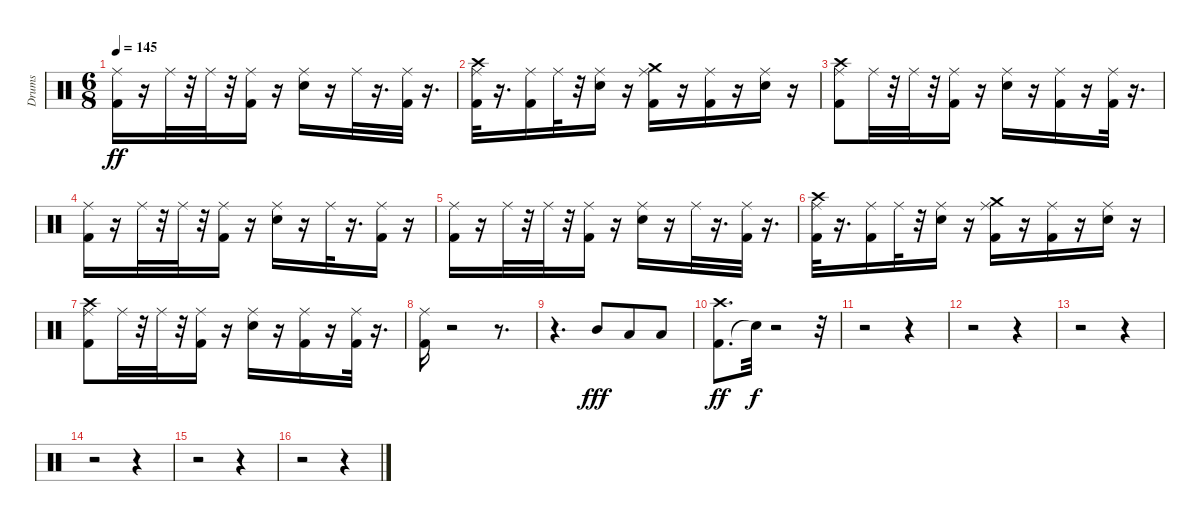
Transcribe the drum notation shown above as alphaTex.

\track ("Drums" "Drums") {instrument percussion}
\staff {score}
\articulation defaults
\ts (6 8)
\tempo 145
\clef neutral
\ks c
("Kick (hit) 2" "Ride (middle)").16{dy ff} r.16 "Ride (middle)".32 r.32 "Ride (middle)".32 r.32 ("Kick (hit) 2" "Ride (middle)").16 r.16 ("Snare (hit) 2" "Ride (middle)").16 r.16 "Ride (middle)".32 r.16{d} ("Kick (hit) 2" "Ride (middle)").32 r.16{d} |
("Kick (hit) 2" "Ride (middle)" "Crash high (hit)").32 r.16{d} ("Kick (hit) 2" "Ride (middle)").16 "Ride (middle)".32 r.32 ("Snare (hit) 2" "Ride (middle)").16 r.16 ("Kick (hit) 2" "Ride (middle)" "Crash medium (hit)").16 r.16 ("Kick (hit) 2" "Ride (middle)").16 r.16 ("Snare (hit) 2" "Ride (middle)").16 r.16 |
("Kick (hit) 2" "Ride (middle)" "Crash high (hit)").8 "Ride (middle)".32 r.32 "Ride (middle)".32 r.32 ("Kick (hit) 2" "Ride (middle)").16 r.16 ("Snare (hit) 2" "Ride (middle)").16 r.16 ("Kick (hit) 2" "Ride (middle)").16 r.16 ("Kick (hit) 2" "Ride (middle)").32 r.16{d} |
("Kick (hit) 2" "Ride (middle)").16 r.16 "Ride (middle)".32 r.32 "Ride (middle)".32 r.32 ("Kick (hit) 2" "Ride (middle)").16 r.16 ("Snare (hit) 2" "Ride (middle)").16 r.16 "Ride (middle)".32 r.16{d} ("Kick (hit) 2" "Ride (middle)").16 r.16 |
("Kick (hit) 2" "Ride (middle)").16 r.16 "Ride (middle)".32 r.32 "Ride (middle)".32 r.32 ("Kick (hit) 2" "Ride (middle)").16 r.16 ("Snare (hit) 2" "Ride (middle)").16 r.16 "Ride (middle)".32 r.16{d} ("Kick (hit) 2" "Ride (middle)").32 r.16{d} |
("Kick (hit) 2" "Ride (middle)" "Crash high (hit)").32 r.16{d} ("Kick (hit) 2" "Ride (middle)").16 "Ride (middle)".32 r.32 ("Snare (hit) 2" "Ride (middle)").16 r.16 ("Kick (hit) 2" "Ride (middle)" "Crash medium (hit)").16 r.16 ("Kick (hit) 2" "Ride (middle)").16 r.16 ("Snare (hit) 2" "Ride (middle)").16 r.16 |
("Kick (hit) 2" "Ride (middle)" "Crash high (hit)").8 "Ride (middle)".32 r.32 "Ride (middle)".32 r.32 ("Kick (hit) 2" "Ride (middle)").16 r.16 ("Snare (hit) 2" "Ride (middle)").16 r.16 ("Kick (hit) 2" "Ride (middle)").16 r.16 ("Kick (hit) 2" "Ride (middle)").32 r.16{d} |
("Kick (hit) 2" "Ride (middle)").16 r.2 r.8{d} |
r.4{d} "Mid Tom (hit)".8{dy fff} "Low Tom (hit)".8 "Low Floor Tom (hit)".8 |
("Kick (hit) 2" "Crash high (hit)").8{d dy ff} "Snare (hit)"{t}.32{dy f} r.2 r.32 |
r.2 r.4 |
r.2 r.4 |
r.2 r.4 |
r.2 r.4 |
r.2 r.4 |
r.2 r.4
